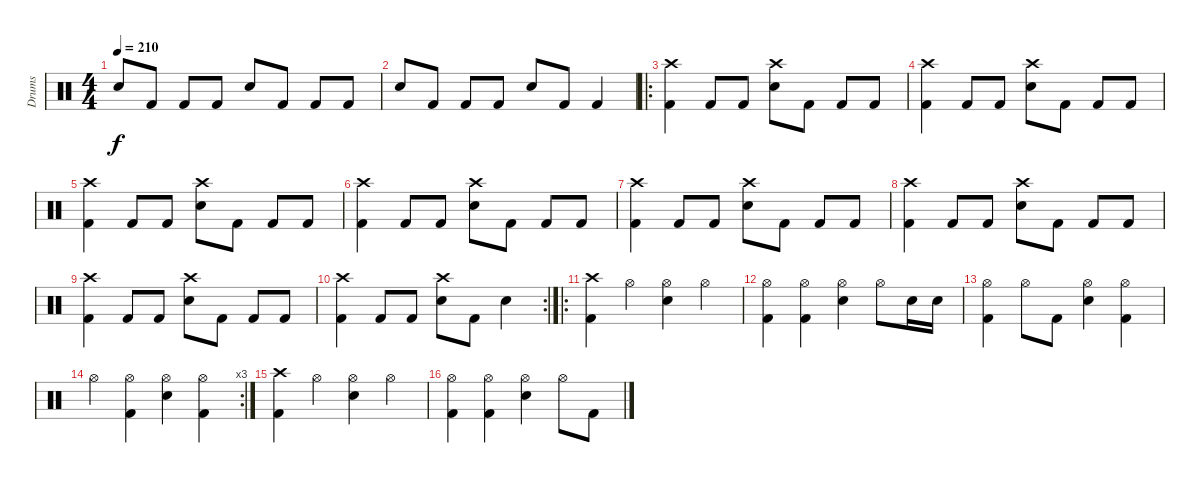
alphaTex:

\track ("Drums" "Drums") {instrument percussion}
\staff {score}
\articulation defaults
\ts (4 4)
\tempo 210
\clef neutral
\ks c "Electric Snare (hit)".8{dy f} "Kick (hit) 2".8 "Kick (hit) 2".8 "Kick (hit) 2".8 "Electric Snare (hit)".8 "Kick (hit) 2".8 "Kick (hit) 2".8 "Kick (hit) 2".8
|
"Electric Snare (hit)".8 "Kick (hit) 2".8 "Kick (hit) 2".8 "Kick (hit) 2".8 "Electric Snare (hit)".8 "Kick (hit) 2".8 "Kick (hit) 2".4 |
\ro
("Crash high (hit)" "Kick (hit) 2").4 "Kick (hit) 2".8 "Kick (hit) 2".8 ("Crash high (hit)" "Electric Snare (hit)").8 "Kick (hit) 2".8 "Kick (hit) 2".8 "Kick (hit) 2".8 |
("Crash high (hit)" "Kick (hit) 2").4 "Kick (hit) 2".8 "Kick (hit) 2".8 ("Crash high (hit)" "Electric Snare (hit)").8 "Kick (hit) 2".8 "Kick (hit) 2".8 "Kick (hit) 2".8 |
("Crash high (hit)" "Kick (hit) 2").4 "Kick (hit) 2".8 "Kick (hit) 2".8 ("Crash high (hit)" "Electric Snare (hit)").8 "Kick (hit) 2".8 "Kick (hit) 2".8 "Kick (hit) 2".8 |
("Crash high (hit)" "Kick (hit) 2").4 "Kick (hit) 2".8 "Kick (hit) 2".8 ("Crash high (hit)" "Electric Snare (hit)").8 "Kick (hit) 2".8 "Kick (hit) 2".8 "Kick (hit) 2".8 |
("Crash high (hit)" "Kick (hit) 2").4 "Kick (hit) 2".8 "Kick (hit) 2".8 ("Crash high (hit)" "Electric Snare (hit)").8 "Kick (hit) 2".8 "Kick (hit) 2".8 "Kick (hit) 2".8 |
("Crash high (hit)" "Kick (hit) 2").4 "Kick (hit) 2".8 "Kick (hit) 2".8 ("Crash high (hit)" "Electric Snare (hit)").8 "Kick (hit) 2".8 "Kick (hit) 2".8 "Kick (hit) 2".8 |
("Crash high (hit)" "Kick (hit) 2").4 "Kick (hit) 2".8 "Kick (hit) 2".8 ("Crash high (hit)" "Electric Snare (hit)").8 "Kick (hit) 2".8 "Kick (hit) 2".8 "Kick (hit) 2".8 |
\rc 2
("Crash high (hit)" "Kick (hit) 2").4 "Kick (hit) 2".8 "Kick (hit) 2".8 ("Crash high (hit)" "Electric Snare (hit)").8 "Kick (hit) 2".8 "Electric Snare (hit)".4 |
\ro
("Crash high (hit)" "Kick (hit) 2").4 "Hi-Hat (open)".4 ("Hi-Hat (open)" "Electric Snare (hit)").4 "Hi-Hat (open)".4 |
("Hi-Hat (open)" "Kick (hit) 2").4 ("Hi-Hat (open)" "Kick (hit) 2").4 ("Hi-Hat (open)" "Electric Snare (hit)").4 "Hi-Hat (open)".8 "Electric Snare (hit)".16 "Electric Snare (hit)".16 |
("Hi-Hat (open)" "Kick (hit) 2").4 "Hi-Hat (open)".8 "Kick (hit) 2".8 ("Hi-Hat (open)" "Electric Snare (hit)").4 ("Hi-Hat (open)" "Kick (hit) 2").4 |
\rc 3 "Hi-Hat (open)".4
("Hi-Hat (open)" "Kick (hit) 2").4 ("Hi-Hat (open)" "Electric Snare (hit)").4 ("Hi-Hat (open)" "Kick (hit) 2").4 |
("Crash high (hit)" "Kick (hit) 2").4 "Hi-Hat (open)".4 ("Hi-Hat (open)" "Electric Snare (hit)").4 "Hi-Hat (open)".4 |
("Hi-Hat (open)" "Kick (hit) 2").4 ("Hi-Hat (open)" "Kick (hit) 2").4 ("Hi-Hat (open)" "Electric Snare (hit)").4 "Hi-Hat (open)".8 "Kick (hit) 2".8
